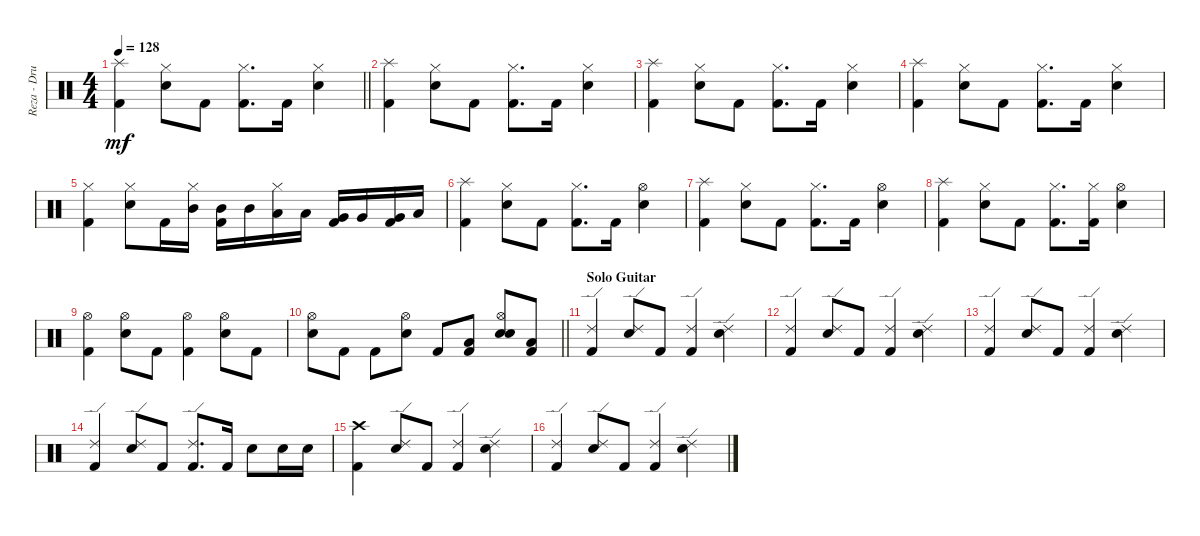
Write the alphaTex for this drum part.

\track ("Reza - Drum" "Reza - Dru") {instrument percussion}
\staff {score}
\articulation defaults
\ts (4 4)
\tempo 128
\clef neutral
\barLineRight lightlight
\ks c
("Splash (hit)" "Kick (hit) 2").4{dy mf} ("Hi-Hat (closed)" "Electric Snare (hit)").8 "Kick (hit) 2".8 ("Hi-Hat (closed)" "Kick (hit) 2").8{d} "Kick (hit) 2".16 ("Hi-Hat (closed)" "Electric Snare (hit)").4 |
("Splash (hit)" "Kick (hit) 2").4 ("Hi-Hat (closed)" "Electric Snare (hit)").8 "Kick (hit) 2".8 ("Hi-Hat (closed)" "Kick (hit) 2").8{d} "Kick (hit) 2".16 ("Hi-Hat (closed)" "Electric Snare (hit)").4 |
("Splash (hit)" "Kick (hit) 2").4 ("Hi-Hat (closed)" "Electric Snare (hit)").8 "Kick (hit) 2".8 ("Hi-Hat (closed)" "Kick (hit) 2").8{d} "Kick (hit) 2".16 ("Hi-Hat (closed)" "Electric Snare (hit)").4 |
("Splash (hit)" "Kick (hit) 2").4 ("Hi-Hat (closed)" "Electric Snare (hit)").8 "Kick (hit) 2".8 ("Hi-Hat (closed)" "Kick (hit) 2").8{d} "Kick (hit) 2".16 ("Hi-Hat (closed)" "Electric Snare (hit)").4 |
("Hi-Hat (closed)" "Kick (hit) 2").4 ("Hi-Hat (closed)" "Electric Snare (hit)").8 "Kick (hit) 2".16 ("Hi-Hat (closed)" "Mid Tom (hit)").16 ("Mid Tom (hit)" "Kick (hit) 2").16 "Mid Tom (hit)".16 ("Hi-Hat (closed)" "Low Tom (hit)").16 "Low Tom (hit)".16 ("Very Low Tom (hit)" "Kick (hit) 2").16 "Very Low Tom (hit)".16 ("Very Low Tom (hit)" "Kick (hit) 2").16 "Low Floor Tom (hit)".16 |
("Splash (hit)" "Kick (hit) 2").4 ("Hi-Hat (closed)" "Electric Snare (hit)").8 "Kick (hit) 2".8 ("Hi-Hat (closed)" "Kick (hit) 2").8{d} "Kick (hit) 2".16 ("Hi-Hat (open)" "Electric Snare (hit)").4 |
("Splash (hit)" "Kick (hit) 2").4 ("Hi-Hat (closed)" "Electric Snare (hit)").8 "Kick (hit) 2".8 ("Hi-Hat (closed)" "Kick (hit) 2").8{d} "Kick (hit) 2".16 ("Hi-Hat (open)" "Electric Snare (hit)").4 |
("Splash (hit)" "Kick (hit) 2").4 ("Hi-Hat (closed)" "Electric Snare (hit)").8 "Kick (hit) 2".8 ("Hi-Hat (closed)" "Kick (hit) 2").8{d} ("Hi-Hat (closed)" "Kick (hit) 2").16 ("Hi-Hat (open)" "Electric Snare (hit)").4 |
("Hi-Hat (open)" "Kick (hit) 2").4 ("Hi-Hat (open)" "Electric Snare (hit)").8 "Kick (hit) 2".8 ("Hi-Hat (open)" "Kick (hit) 2").4 ("Hi-Hat (open)" "Electric Snare (hit)").8 "Kick (hit) 2".8 |
\barLineRight lightlight
("Hi-Hat (open)" "Electric Snare (hit)").8 "Kick (hit) 2".8 "Kick (hit) 2".8 ("Hi-Hat (open)" "Electric Snare (hit)").8 "Kick (hit) 2".8 ("Low Tom (hit)" "Kick (hit) 2").8 ("Hi-Hat (open)" "Snare (hit) 2" "Electric Snare (hit)").8 ("Low Tom (hit)" "Kick (hit) 2").8 |
\section ("" "Solo Guitar")
("Ride (edge) 2" "Kick (hit) 2").4 ("Ride (edge) 2" "Electric Snare (hit)").8 "Kick (hit) 2".8 ("Ride (edge) 2" "Kick (hit) 2").4 ("Ride (edge) 2" "Electric Snare (hit)").4 |
("Ride (edge) 2" "Kick (hit) 2").4 ("Ride (edge) 2" "Electric Snare (hit)").8 "Kick (hit) 2".8 ("Ride (edge) 2" "Kick (hit) 2").4 ("Ride (edge) 2" "Electric Snare (hit)").4 |
("Ride (edge) 2" "Kick (hit) 2").4 ("Ride (edge) 2" "Electric Snare (hit)").8 "Kick (hit) 2".8 ("Ride (edge) 2" "Kick (hit) 2").4 ("Ride (edge) 2" "Electric Snare (hit)").4 |
("Ride (edge) 2" "Kick (hit) 2").4 ("Ride (edge) 2" "Electric Snare (hit)").8 "Kick (hit) 2".8 ("Ride (edge) 2" "Kick (hit) 2").8{d} "Kick (hit) 2".16 "Electric Snare (hit)".8 "Electric Snare (hit)".16 "Electric Snare (hit)".16 |
("Crash high (hit)" "Kick (hit) 2").4 ("Ride (edge) 2" "Electric Snare (hit)").8 "Kick (hit) 2".8 ("Ride (edge) 2" "Kick (hit) 2").4 ("Ride (edge) 2" "Electric Snare (hit)").4 |
("Ride (edge) 2" "Kick (hit) 2").4 ("Ride (edge) 2" "Electric Snare (hit)").8 "Kick (hit) 2".8 ("Ride (edge) 2" "Kick (hit) 2").4 ("Ride (edge) 2" "Electric Snare (hit)").4
